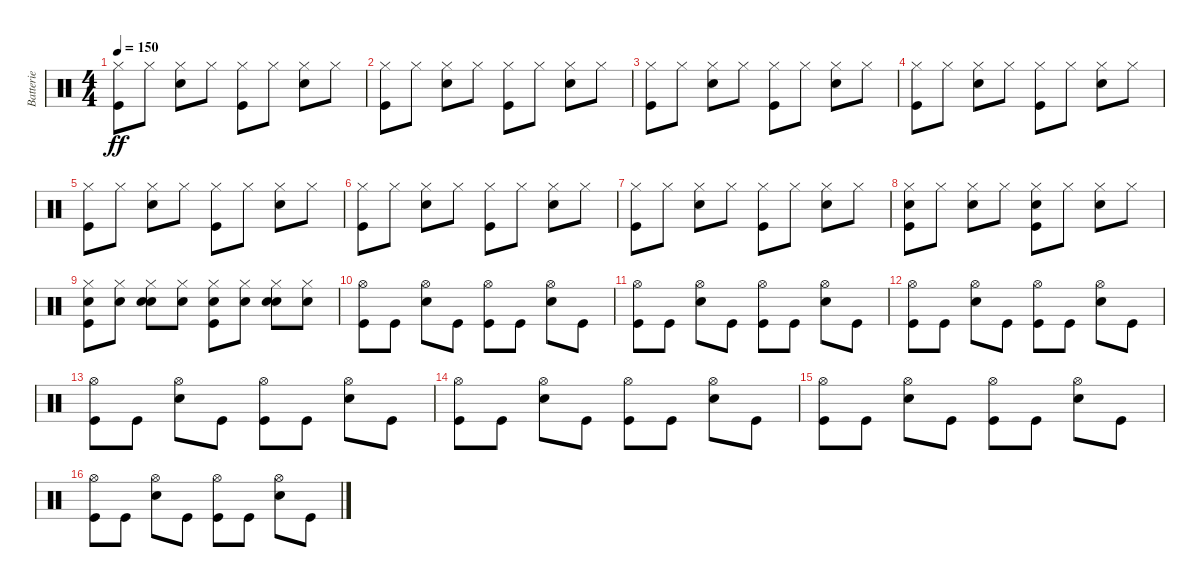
\track ("Batterie" "Batterie") {instrument percussion}
\staff {score}
\articulation defaults
\ts (4 4)
\tempo 150
\clef neutral
\ks c
("Kick (hit)" "Hi-Hat (closed)").8{dy ff} "Hi-Hat (closed)".8 ("Electric Snare (hit)" "Hi-Hat (closed)").8 "Hi-Hat (closed)".8 ("Kick (hit)" "Hi-Hat (closed)").8 "Hi-Hat (closed)".8 ("Electric Snare (hit)" "Hi-Hat (closed)").8 "Hi-Hat (closed)".8 |
("Kick (hit)" "Hi-Hat (closed)").8 "Hi-Hat (closed)".8 ("Electric Snare (hit)" "Hi-Hat (closed)").8 "Hi-Hat (closed)".8 ("Kick (hit)" "Hi-Hat (closed)").8 "Hi-Hat (closed)".8 ("Electric Snare (hit)" "Hi-Hat (closed)").8 "Hi-Hat (closed)".8 |
("Kick (hit)" "Hi-Hat (closed)").8 "Hi-Hat (closed)".8 ("Electric Snare (hit)" "Hi-Hat (closed)").8 "Hi-Hat (closed)".8 ("Kick (hit)" "Hi-Hat (closed)").8 "Hi-Hat (closed)".8 ("Electric Snare (hit)" "Hi-Hat (closed)").8 "Hi-Hat (closed)".8 |
("Kick (hit)" "Hi-Hat (closed)").8 "Hi-Hat (closed)".8 ("Electric Snare (hit)" "Hi-Hat (closed)").8 "Hi-Hat (closed)".8 ("Kick (hit)" "Hi-Hat (closed)").8 "Hi-Hat (closed)".8 ("Electric Snare (hit)" "Hi-Hat (closed)").8 "Hi-Hat (closed)".8 |
("Kick (hit)" "Hi-Hat (closed)").8 "Hi-Hat (closed)".8 ("Electric Snare (hit)" "Hi-Hat (closed)").8 "Hi-Hat (closed)".8 ("Kick (hit)" "Hi-Hat (closed)").8 "Hi-Hat (closed)".8 ("Electric Snare (hit)" "Hi-Hat (closed)").8 "Hi-Hat (closed)".8 |
("Kick (hit)" "Hi-Hat (closed)").8 "Hi-Hat (closed)".8 ("Electric Snare (hit)" "Hi-Hat (closed)").8 "Hi-Hat (closed)".8 ("Kick (hit)" "Hi-Hat (closed)").8 "Hi-Hat (closed)".8 ("Electric Snare (hit)" "Hi-Hat (closed)").8 "Hi-Hat (closed)".8 |
("Kick (hit)" "Hi-Hat (closed)").8 "Hi-Hat (closed)".8 ("Electric Snare (hit)" "Hi-Hat (closed)").8 "Hi-Hat (closed)".8 ("Kick (hit)" "Hi-Hat (closed)").8 "Hi-Hat (closed)".8 ("Electric Snare (hit)" "Hi-Hat (closed)").8 "Hi-Hat (closed)".8 |
("Kick (hit)" "Hi-Hat (closed)" "Electric Snare (hit)").8 "Hi-Hat (closed)".8 ("Electric Snare (hit)" "Hi-Hat (closed)").8 "Hi-Hat (closed)".8 ("Kick (hit)" "Hi-Hat (closed)" "Electric Snare (hit)").8 "Hi-Hat (closed)".8 ("Electric Snare (hit)" "Hi-Hat (closed)").8 "Hi-Hat (closed)".8 |
("Kick (hit)" "Hi-Hat (closed)" "Electric Snare (hit)").8 ("Hi-Hat (closed)" "Electric Snare (hit)").8 ("Electric Snare (hit)" "Hi-Hat (closed)" "Electric Snare (hit)").8 ("Hi-Hat (closed)" "Electric Snare (hit)").8 ("Kick (hit)" "Hi-Hat (closed)" "Electric Snare (hit)").8 ("Hi-Hat (closed)" "Electric Snare (hit)").8 ("Electric Snare (hit)" "Hi-Hat (closed)" "Electric Snare (hit)").8 ("Hi-Hat (closed)" "Electric Snare (hit)").8 |
("Kick (hit)" "Hi-Hat (open)").8 "Kick (hit)".8 ("Electric Snare (hit)" "Hi-Hat (open)").8 "Kick (hit)".8 ("Kick (hit)" "Hi-Hat (open)").8 "Kick (hit)".8 ("Electric Snare (hit)" "Hi-Hat (open)").8 "Kick (hit)".8 |
("Kick (hit)" "Hi-Hat (open)").8 "Kick (hit)".8 ("Electric Snare (hit)" "Hi-Hat (open)").8 "Kick (hit)".8 ("Kick (hit)" "Hi-Hat (open)").8 "Kick (hit)".8 ("Electric Snare (hit)" "Hi-Hat (open)").8 "Kick (hit)".8 |
("Kick (hit)" "Hi-Hat (open)").8 "Kick (hit)".8 ("Electric Snare (hit)" "Hi-Hat (open)").8 "Kick (hit)".8 ("Kick (hit)" "Hi-Hat (open)").8 "Kick (hit)".8 ("Electric Snare (hit)" "Hi-Hat (open)").8 "Kick (hit)".8 |
("Kick (hit)" "Hi-Hat (open)").8 "Kick (hit)".8 ("Electric Snare (hit)" "Hi-Hat (open)").8 "Kick (hit)".8 ("Kick (hit)" "Hi-Hat (open)").8 "Kick (hit)".8 ("Electric Snare (hit)" "Hi-Hat (open)").8 "Kick (hit)".8 |
("Kick (hit)" "Hi-Hat (open)").8 "Kick (hit)".8 ("Electric Snare (hit)" "Hi-Hat (open)").8 "Kick (hit)".8 ("Kick (hit)" "Hi-Hat (open)").8 "Kick (hit)".8 ("Electric Snare (hit)" "Hi-Hat (open)").8 "Kick (hit)".8 |
("Kick (hit)" "Hi-Hat (open)").8 "Kick (hit)".8 ("Electric Snare (hit)" "Hi-Hat (open)").8 "Kick (hit)".8 ("Kick (hit)" "Hi-Hat (open)").8 "Kick (hit)".8 ("Electric Snare (hit)" "Hi-Hat (open)").8 "Kick (hit)".8 |
("Kick (hit)" "Hi-Hat (open)").8 "Kick (hit)".8 ("Electric Snare (hit)" "Hi-Hat (open)").8 "Kick (hit)".8 ("Kick (hit)" "Hi-Hat (open)").8 "Kick (hit)".8 ("Electric Snare (hit)" "Hi-Hat (open)").8 "Kick (hit)".8
